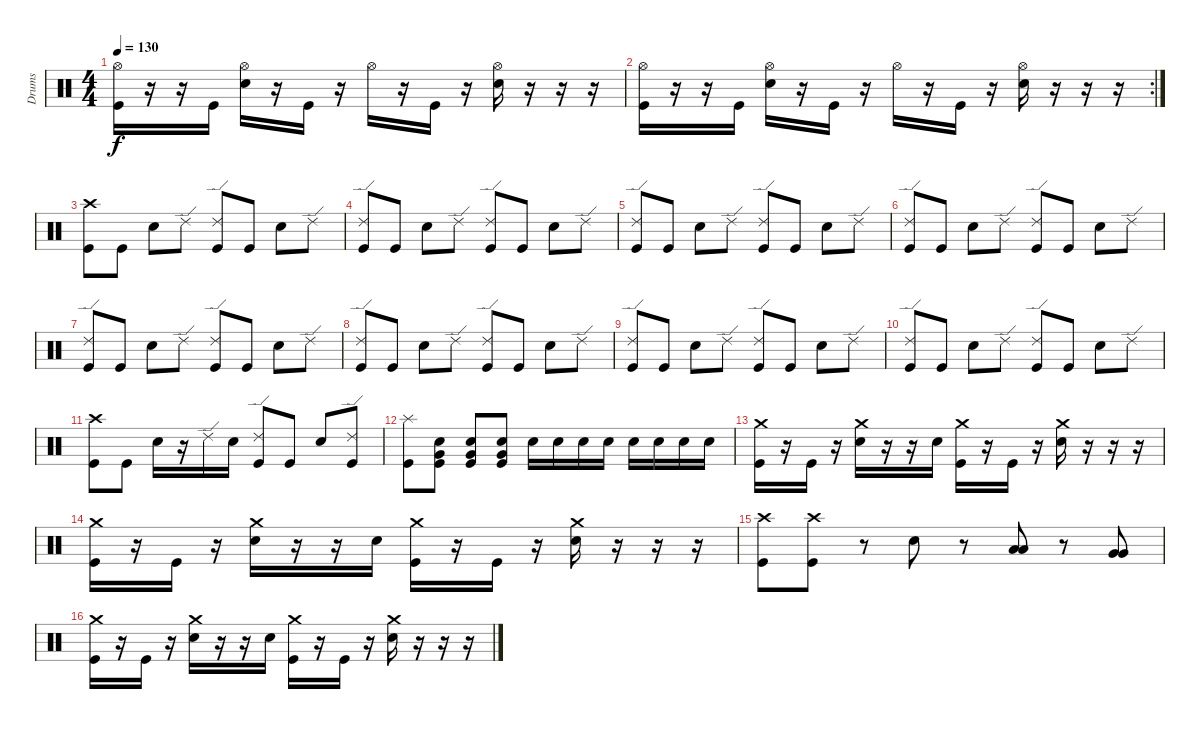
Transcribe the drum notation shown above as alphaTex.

\track ("Drums" "Drums") {instrument percussion}
\staff {score}
\articulation defaults
\ts (4 4)
\tempo 130
\clef neutral
\ks c
("Hi-Hat (open)" "Kick (hit)").16{dy f} r.16 r.16 "Kick (hit)".16 ("Hi-Hat (open)" "Snare (hit) 2").16 r.16 "Kick (hit)".16 r.16 "Hi-Hat (open)".16 r.16 "Kick (hit)".16 r.16 ("Hi-Hat (open)" "Snare (hit) 2").16 r.16 r.16 r.16 |
\rc 2
("Hi-Hat (open)" "Kick (hit)").16 r.16 r.16 "Kick (hit)".16 ("Hi-Hat (open)" "Snare (hit) 2").16 r.16 "Kick (hit)".16 r.16 "Hi-Hat (open)".16 r.16 "Kick (hit)".16 r.16 ("Hi-Hat (open)" "Snare (hit) 2").16 r.16 r.16 r.16 |
("Crash high (hit)" "Kick (hit)").8 "Kick (hit)".8 "Snare (hit) 2".8 "Ride (edge) 2".8 ("Ride (edge) 2" "Kick (hit)").8 "Kick (hit)".8 "Snare (hit) 2".8 "Ride (edge) 2".8 |
("Ride (edge) 2" "Kick (hit)").8 "Kick (hit)".8 "Snare (hit) 2".8 "Ride (edge) 2".8 ("Ride (edge) 2" "Kick (hit)").8 "Kick (hit)".8 "Snare (hit) 2".8 "Ride (edge) 2".8 |
("Ride (edge) 2" "Kick (hit)").8 "Kick (hit)".8 "Snare (hit) 2".8 "Ride (edge) 2".8 ("Ride (edge) 2" "Kick (hit)").8 "Kick (hit)".8 "Snare (hit) 2".8 "Ride (edge) 2".8 |
("Ride (edge) 2" "Kick (hit)").8 "Kick (hit)".8 "Snare (hit) 2".8 "Ride (edge) 2".8 ("Ride (edge) 2" "Kick (hit)").8 "Kick (hit)".8 "Snare (hit) 2".8 "Ride (edge) 2".8 |
("Ride (edge) 2" "Kick (hit)").8 "Kick (hit)".8 "Snare (hit) 2".8 "Ride (edge) 2".8 ("Ride (edge) 2" "Kick (hit)").8 "Kick (hit)".8 "Snare (hit) 2".8 "Ride (edge) 2".8 |
("Ride (edge) 2" "Kick (hit)").8 "Kick (hit)".8 "Snare (hit) 2".8 "Ride (edge) 2".8 ("Ride (edge) 2" "Kick (hit)").8 "Kick (hit)".8 "Snare (hit) 2".8 "Ride (edge) 2".8 |
("Ride (edge) 2" "Kick (hit)").8 "Kick (hit)".8 "Snare (hit) 2".8 "Ride (edge) 2".8 ("Ride (edge) 2" "Kick (hit)").8 "Kick (hit)".8 "Snare (hit) 2".8 "Ride (edge) 2".8 |
("Ride (edge) 2" "Kick (hit)").8 "Kick (hit)".8 "Snare (hit) 2".8 "Ride (edge) 2".8 ("Ride (edge) 2" "Kick (hit)").8 "Kick (hit)".8 "Snare (hit) 2".8 "Ride (edge) 2".8 |
("Crash high (hit)" "Kick (hit)").8 "Kick (hit)".8 "Snare (hit) 2".16 r.16 "Ride (edge) 2".16 "Snare (hit) 2".16 ("Ride (edge) 2" "Kick (hit)").8 "Kick (hit)".8 "Snare (hit) 2".8 ("Ride (edge) 2" "Kick (hit)").8 |
("Splash (hit)" "Kick (hit)").8 ("Snare (hit) 2" "Very Low Tom (hit)" "Kick (hit)").8 ("Snare (hit) 2" "Very Low Tom (hit)" "Kick (hit)").8 ("Snare (hit) 2" "Very Low Tom (hit)" "Kick (hit)").8 "Snare (hit) 2".16 "Snare (hit) 2".16 "Snare (hit) 2".16 "Snare (hit) 2".16 "Snare (hit) 2".16 "Snare (hit) 2".16 "Snare (hit) 2".16 "Snare (hit) 2".16 |
("Crash medium (hit)" "Kick (hit)").16 r.16 "Kick (hit)".16 r.16 ("Crash medium (hit)" "Snare (hit) 2").16 r.16 r.16 "Snare (hit) 2".16 ("Crash medium (hit)" "Kick (hit)").16 r.16 "Kick (hit)".16 r.16 ("Crash medium (hit)" "Snare (hit) 2").16 r.16 r.16 r.16 |
("Crash medium (hit)" "Kick (hit)").16 r.16 "Kick (hit)".16 r.16 ("Crash medium (hit)" "Snare (hit) 2").16 r.16 r.16 "Snare (hit) 2".16 ("Crash medium (hit)" "Kick (hit)").16 r.16 "Kick (hit)".16 r.16 ("Crash medium (hit)" "Snare (hit) 2").16 r.16 r.16 r.16 |
("Crash high (hit)" "Kick (hit)").8 ("Crash high (hit)" "Kick (hit)").8 r.8 "Snare (hit) 2".8 r.8 ("Low Tom (hit)" "Low Tom (hit)").8 r.8 ("Very Low Tom (hit)" "Very Low Tom (hit)").8 |
("Crash medium (hit)" "Kick (hit)").16 r.16 "Kick (hit)".16 r.16 ("Crash medium (hit)" "Snare (hit) 2").16 r.16 r.16 "Snare (hit) 2".16 ("Crash medium (hit)" "Kick (hit)").16 r.16 "Kick (hit)".16 r.16 ("Crash medium (hit)" "Snare (hit) 2").16 r.16 r.16 r.16
